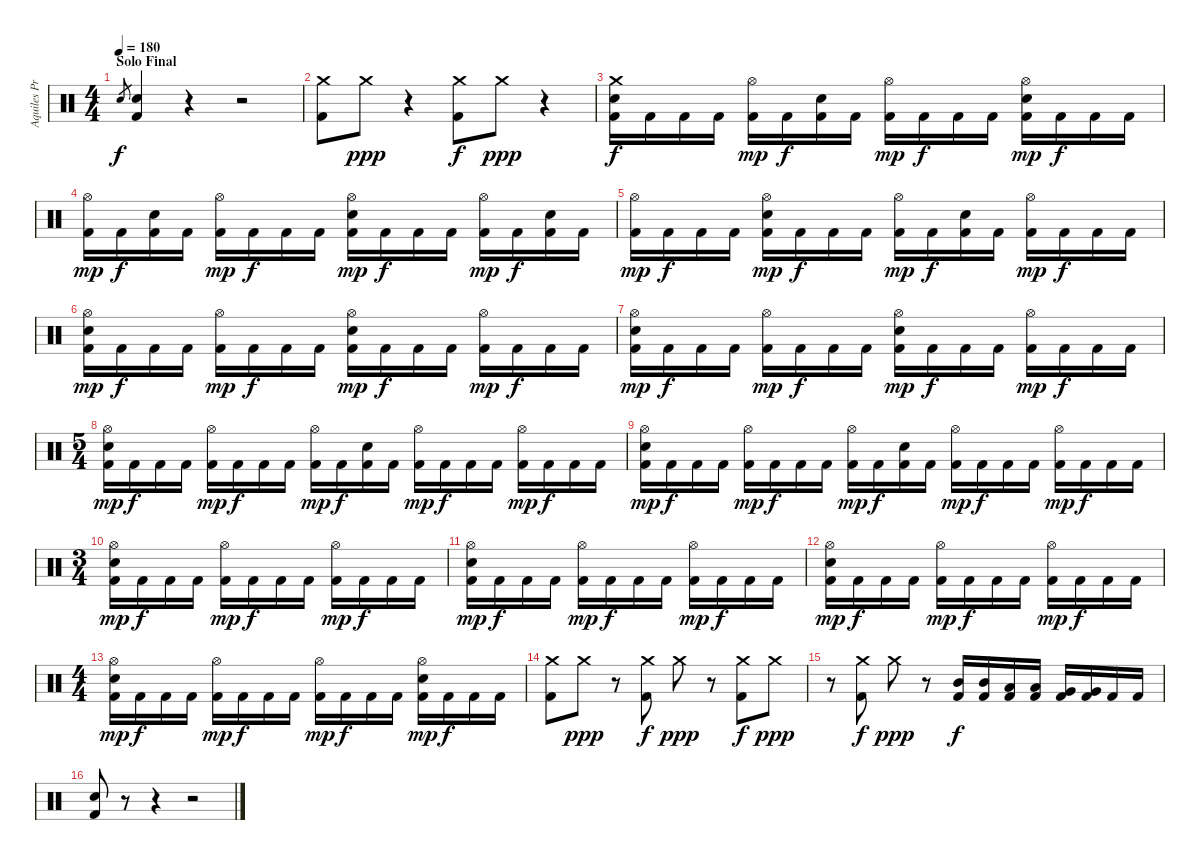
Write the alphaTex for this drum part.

\track ("Aquiles Priester" "Aquiles Pr") {instrument percussion}
\staff {score}
\articulation defaults
\ts (4 4)
\section ("" "Solo Final")
\tempo 180
\clef neutral
\ks c "Snare (hit) 2".8{gr dy f}
("Snare (hit) 2" "Kick (hit) 2").4 r.4 r.2 |
("Crash medium (hit)" "Kick (hit) 2").8 "Crash medium (hit)".8{dy ppp} r.4 ("Crash medium (hit)" "Kick (hit) 2").8{dy f} "Crash medium (hit)".8{dy ppp} r.4 |
("Crash medium (hit)" "Snare (hit) 2" "Kick (hit) 2").16{dy f} "Kick (hit) 2".16 "Kick (hit) 2".16 "Kick (hit) 2".16 ("Hi-Hat (open)" "Kick (hit) 2").16{dy mp} "Kick (hit) 2".16{dy f} ("Snare (hit) 2" "Kick (hit) 2").16 "Kick (hit) 2".16 ("Hi-Hat (open)" "Kick (hit) 2").16{dy mp} "Kick (hit) 2".16{dy f} "Kick (hit) 2".16 "Kick (hit) 2".16 ("Hi-Hat (open)" "Snare (hit) 2" "Kick (hit) 2").16{dy mp} "Kick (hit) 2".16{dy f} "Kick (hit) 2".16 "Kick (hit) 2".16 |
("Hi-Hat (open)" "Kick (hit) 2").16{dy mp} "Kick (hit) 2".16{dy f} ("Snare (hit) 2" "Kick (hit) 2").16 "Kick (hit) 2".16 ("Hi-Hat (open)" "Kick (hit) 2").16{dy mp} "Kick (hit) 2".16{dy f} "Kick (hit) 2".16 "Kick (hit) 2".16 ("Hi-Hat (open)" "Snare (hit) 2" "Kick (hit) 2").16{dy mp} "Kick (hit) 2".16{dy f} "Kick (hit) 2".16 "Kick (hit) 2".16 ("Hi-Hat (open)" "Kick (hit) 2").16{dy mp} "Kick (hit) 2".16{dy f} ("Snare (hit) 2" "Kick (hit) 2").16 "Kick (hit) 2".16 |
("Hi-Hat (open)" "Kick (hit) 2").16{dy mp} "Kick (hit) 2".16{dy f} "Kick (hit) 2".16 "Kick (hit) 2".16 ("Hi-Hat (open)" "Snare (hit) 2" "Kick (hit) 2").16{dy mp} "Kick (hit) 2".16{dy f} "Kick (hit) 2".16 "Kick (hit) 2".16 ("Hi-Hat (open)" "Kick (hit) 2").16{dy mp} "Kick (hit) 2".16{dy f} ("Snare (hit) 2" "Kick (hit) 2").16 "Kick (hit) 2".16 ("Hi-Hat (open)" "Kick (hit) 2").16{dy mp} "Kick (hit) 2".16{dy f} "Kick (hit) 2".16 "Kick (hit) 2".16 |
("Hi-Hat (open)" "Snare (hit) 2" "Kick (hit) 2").16{dy mp} "Kick (hit) 2".16{dy f} "Kick (hit) 2".16 "Kick (hit) 2".16 ("Hi-Hat (open)" "Kick (hit) 2").16{dy mp} "Kick (hit) 2".16{dy f} "Kick (hit) 2".16 "Kick (hit) 2".16 ("Hi-Hat (open)" "Snare (hit) 2" "Kick (hit) 2").16{dy mp} "Kick (hit) 2".16{dy f} "Kick (hit) 2".16 "Kick (hit) 2".16 ("Hi-Hat (open)" "Kick (hit) 2").16{dy mp} "Kick (hit) 2".16{dy f} "Kick (hit) 2".16 "Kick (hit) 2".16 |
("Hi-Hat (open)" "Snare (hit) 2" "Kick (hit) 2").16{dy mp} "Kick (hit) 2".16{dy f} "Kick (hit) 2".16 "Kick (hit) 2".16 ("Hi-Hat (open)" "Kick (hit) 2").16{dy mp} "Kick (hit) 2".16{dy f} "Kick (hit) 2".16 "Kick (hit) 2".16 ("Hi-Hat (open)" "Snare (hit) 2" "Kick (hit) 2").16{dy mp} "Kick (hit) 2".16{dy f} "Kick (hit) 2".16 "Kick (hit) 2".16 ("Hi-Hat (open)" "Kick (hit) 2").16{dy mp} "Kick (hit) 2".16{dy f} "Kick (hit) 2".16 "Kick (hit) 2".16 |
\ts (5 4)
("Hi-Hat (open)" "Snare (hit) 2" "Kick (hit) 2").16{dy mp} "Kick (hit) 2".16{dy f} "Kick (hit) 2".16 "Kick (hit) 2".16 ("Hi-Hat (open)" "Kick (hit) 2").16{dy mp} "Kick (hit) 2".16{dy f} "Kick (hit) 2".16 "Kick (hit) 2".16 ("Hi-Hat (open)" "Kick (hit) 2").16{dy mp} "Kick (hit) 2".16{dy f} ("Snare (hit) 2" "Kick (hit) 2").16 "Kick (hit) 2".16 ("Hi-Hat (open)" "Kick (hit) 2").16{dy mp} "Kick (hit) 2".16{dy f} "Kick (hit) 2".16 "Kick (hit) 2".16 ("Hi-Hat (open)" "Kick (hit) 2").16{dy mp} "Kick (hit) 2".16{dy f} "Kick (hit) 2".16 "Kick (hit) 2".16 |
("Hi-Hat (open)" "Snare (hit) 2" "Kick (hit) 2").16{dy mp} "Kick (hit) 2".16{dy f} "Kick (hit) 2".16 "Kick (hit) 2".16 ("Hi-Hat (open)" "Kick (hit) 2").16{dy mp} "Kick (hit) 2".16{dy f} "Kick (hit) 2".16 "Kick (hit) 2".16 ("Hi-Hat (open)" "Kick (hit) 2").16{dy mp} "Kick (hit) 2".16{dy f} ("Snare (hit) 2" "Kick (hit) 2").16 "Kick (hit) 2".16 ("Hi-Hat (open)" "Kick (hit) 2").16{dy mp} "Kick (hit) 2".16{dy f} "Kick (hit) 2".16 "Kick (hit) 2".16 ("Hi-Hat (open)" "Kick (hit) 2").16{dy mp} "Kick (hit) 2".16{dy f} "Kick (hit) 2".16 "Kick (hit) 2".16 |
\ts (3 4)
("Hi-Hat (open)" "Snare (hit) 2" "Kick (hit) 2").16{dy mp} "Kick (hit) 2".16{dy f} "Kick (hit) 2".16 "Kick (hit) 2".16 ("Hi-Hat (open)" "Kick (hit) 2").16{dy mp} "Kick (hit) 2".16{dy f} "Kick (hit) 2".16 "Kick (hit) 2".16 ("Hi-Hat (open)" "Kick (hit) 2").16{dy mp} "Kick (hit) 2".16{dy f} "Kick (hit) 2".16 "Kick (hit) 2".16 |
("Hi-Hat (open)" "Snare (hit) 2" "Kick (hit) 2").16{dy mp} "Kick (hit) 2".16{dy f} "Kick (hit) 2".16 "Kick (hit) 2".16 ("Hi-Hat (open)" "Kick (hit) 2").16{dy mp} "Kick (hit) 2".16{dy f} "Kick (hit) 2".16 "Kick (hit) 2".16 ("Hi-Hat (open)" "Kick (hit) 2").16{dy mp} "Kick (hit) 2".16{dy f} "Kick (hit) 2".16 "Kick (hit) 2".16 |
("Hi-Hat (open)" "Snare (hit) 2" "Kick (hit) 2").16{dy mp} "Kick (hit) 2".16{dy f} "Kick (hit) 2".16 "Kick (hit) 2".16 ("Hi-Hat (open)" "Kick (hit) 2").16{dy mp} "Kick (hit) 2".16{dy f} "Kick (hit) 2".16 "Kick (hit) 2".16 ("Hi-Hat (open)" "Kick (hit) 2").16{dy mp} "Kick (hit) 2".16{dy f} "Kick (hit) 2".16 "Kick (hit) 2".16 |
\ts (4 4)
("Hi-Hat (open)" "Snare (hit) 2" "Kick (hit) 2").16{dy mp} "Kick (hit) 2".16{dy f} "Kick (hit) 2".16 "Kick (hit) 2".16 ("Hi-Hat (open)" "Kick (hit) 2").16{dy mp} "Kick (hit) 2".16{dy f} "Kick (hit) 2".16 "Kick (hit) 2".16 ("Hi-Hat (open)" "Kick (hit) 2").16{dy mp} "Kick (hit) 2".16{dy f} "Kick (hit) 2".16 "Kick (hit) 2".16 ("Hi-Hat (open)" "Snare (hit) 2" "Kick (hit) 2").16{dy mp} "Kick (hit) 2".16{dy f} "Kick (hit) 2".16 "Kick (hit) 2".16 |
("Crash medium (hit)" "Kick (hit) 2").8 "Crash medium (hit)".8{dy ppp} r.8 ("Crash medium (hit)" "Kick (hit) 2").8{dy f} "Crash medium (hit)".8{dy ppp} r.8 ("Crash medium (hit)" "Kick (hit) 2").8{dy f} "Crash medium (hit)".8{dy ppp} |
r.8 ("Crash medium (hit)" "Kick (hit) 2").8{dy f} "Crash medium (hit)".8{dy ppp} r.8 ("Mid Tom (hit)" "Kick (hit) 2").16{dy f} ("Mid Tom (hit)" "Kick (hit) 2").16 ("Low Tom (hit)" "Kick (hit) 2").16 ("Low Tom (hit)" "Kick (hit) 2").16 ("Very Low Tom (hit)" "Kick (hit) 2").16 ("Very Low Tom (hit)" "Kick (hit) 2").16 "Kick (hit) 2".16 "Kick (hit) 2".16 |
("Snare (hit) 2" "Kick (hit) 2").8 r.8 r.4 r.2
